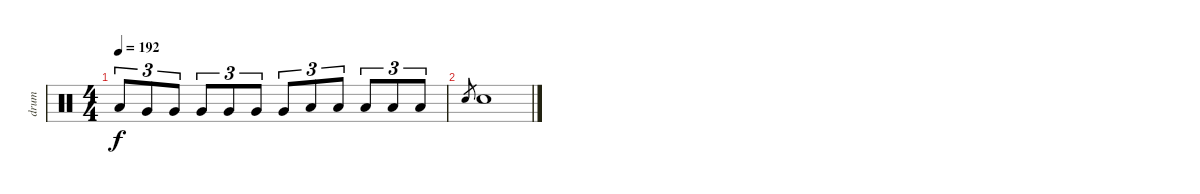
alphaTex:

\track ("drum" "drum") {instrument percussion}
\staff {score}
\articulation defaults
\ts (4 4)
\tempo 192
\clef neutral
\ks c "Low Tom (hit)".8{tu (3 2) dy f} "Very Low Tom (hit)".8{tu (3 2)} "Very Low Tom (hit)".8{tu (3 2)} "Very Low Tom (hit)".8{tu (3 2)} "Very Low Tom (hit)".8{tu (3 2)} "Very Low Tom (hit)".8{tu (3 2)} "Very Low Tom (hit)".8{tu (3 2)} "Low Floor Tom (hit)".8{tu (3 2)} "Low Floor Tom (hit)".8{tu (3 2)} "Low Floor Tom (hit)".8{tu (3 2)} "Low Floor Tom (hit)".8{tu (3 2)} "Low Floor Tom (hit)".8{tu (3 2)}
|
"Electric Snare (hit)".8{gr} "Electric Snare (hit)".1
